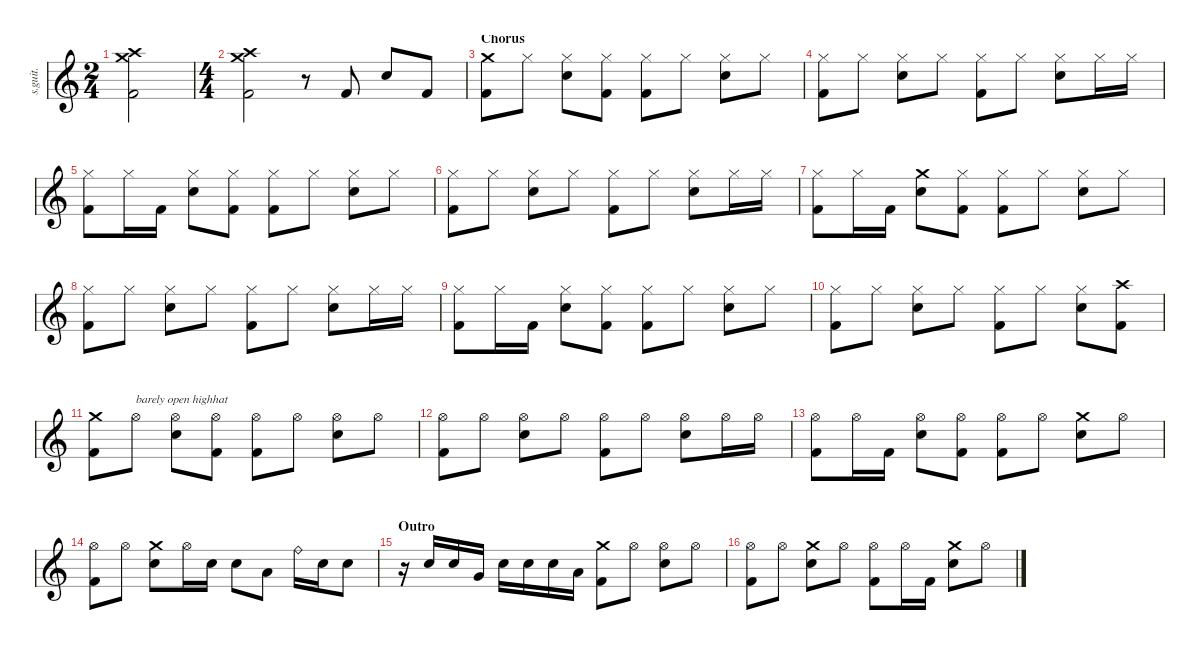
\defaultSystemsLayout 4
\hideDynamics
\bracketExtendMode nobrackets
\track ("Lars Ulrich" "s.guit.") {instrument percussion}
\staff {score}
\articulation defaults
\ts (2 4)
\beaming (8 2 2 2 2)
\tempo (60 hide)
\clef g2
\ks c
("Crash medium (hit)" "Crash high (hit)" "Kick (hit) 2").2{lyrics (0 "") lyrics (1 "") lyrics (2 "") lyrics (3 "") lyrics (4 "") dy fff} |
\ts (4 4)
\beaming (8 2 2 2 2)
\tempo (69 hide)
("Crash medium (hit)" "Crash high (hit)" "Kick (hit) 2").2{lyrics (0 "") lyrics (1 "") lyrics (2 "") lyrics (3 "") lyrics (4 "")} r.8 "Kick (hit) 2".8{lyrics (0 "") lyrics (1 "") lyrics (2 "") lyrics (3 "") lyrics (4 "")} "Snare (hit) 2".8{lyrics (0 "") lyrics (1 "") lyrics (2 "") lyrics (3 "") lyrics (4 "") dy f} "Kick (hit) 2".8{lyrics (0 "") lyrics (1 "") lyrics (2 "") lyrics (3 "") lyrics (4 "") dy fff} |
\section ("" "Chorus")
("Crash medium (hit)" "Kick (hit) 2").8{lyrics (0 "") lyrics (1 "") lyrics (2 "") lyrics (3 "") lyrics (4 "") dy f} "Hi-Hat (closed)".8{lyrics (0 "") lyrics (1 "") lyrics (2 "") lyrics (3 "") lyrics (4 "")} ("Hi-Hat (closed)" "Snare (hit) 2").8{lyrics (0 "") lyrics (1 "") lyrics (2 "") lyrics (3 "") lyrics (4 "")} ("Hi-Hat (closed)" "Kick (hit) 2").8{lyrics (0 "") lyrics (1 "") lyrics (2 "") lyrics (3 "") lyrics (4 "")} ("Hi-Hat (closed)" "Kick (hit) 2").8{lyrics (0 "") lyrics (1 "") lyrics (2 "") lyrics (3 "") lyrics (4 "")} "Hi-Hat (closed)".8{lyrics (0 "") lyrics (1 "") lyrics (2 "") lyrics (3 "") lyrics (4 "")} ("Hi-Hat (closed)" "Snare (hit) 2").8{lyrics (0 "") lyrics (1 "") lyrics (2 "") lyrics (3 "") lyrics (4 "")} "Hi-Hat (closed)".8{lyrics (0 "") lyrics (1 "") lyrics (2 "") lyrics (3 "") lyrics (4 "")} |
("Hi-Hat (closed)" "Kick (hit) 2").8{lyrics (0 "") lyrics (1 "") lyrics (2 "") lyrics (3 "") lyrics (4 "")} "Hi-Hat (closed)".8{lyrics (0 "") lyrics (1 "") lyrics (2 "") lyrics (3 "") lyrics (4 "")} ("Hi-Hat (closed)" "Snare (hit) 2").8{lyrics (0 "") lyrics (1 "") lyrics (2 "") lyrics (3 "") lyrics (4 "")} "Hi-Hat (closed)".8{lyrics (0 "") lyrics (1 "") lyrics (2 "") lyrics (3 "") lyrics (4 "")} ("Hi-Hat (closed)" "Kick (hit) 2").8{lyrics (0 "") lyrics (1 "") lyrics (2 "") lyrics (3 "") lyrics (4 "")} "Hi-Hat (closed)".8{lyrics (0 "") lyrics (1 "") lyrics (2 "") lyrics (3 "") lyrics (4 "")} ("Hi-Hat (closed)" "Snare (hit) 2").8{lyrics (0 "") lyrics (1 "") lyrics (2 "") lyrics (3 "") lyrics (4 "")} "Hi-Hat (closed)".16{lyrics (0 "") lyrics (1 "") lyrics (2 "") lyrics (3 "") lyrics (4 "")} "Hi-Hat (closed)".16{lyrics (0 "") lyrics (1 "") lyrics (2 "") lyrics (3 "") lyrics (4 "")} |
("Hi-Hat (closed)" "Kick (hit) 2").8{lyrics (0 "") lyrics (1 "") lyrics (2 "") lyrics (3 "") lyrics (4 "")} "Hi-Hat (closed)".16{lyrics (0 "") lyrics (1 "") lyrics (2 "") lyrics (3 "") lyrics (4 "")} "Kick (hit) 2".16{lyrics (0 "") lyrics (1 "") lyrics (2 "") lyrics (3 "") lyrics (4 "") dy fff} ("Hi-Hat (closed)" "Snare (hit) 2").8{lyrics (0 "") lyrics (1 "") lyrics (2 "") lyrics (3 "") lyrics (4 "") dy f} ("Hi-Hat (closed)" "Kick (hit) 2").8{lyrics (0 "") lyrics (1 "") lyrics (2 "") lyrics (3 "") lyrics (4 "")} ("Hi-Hat (closed)" "Kick (hit) 2").8{lyrics (0 "") lyrics (1 "") lyrics (2 "") lyrics (3 "") lyrics (4 "")} "Hi-Hat (closed)".8{lyrics (0 "") lyrics (1 "") lyrics (2 "") lyrics (3 "") lyrics (4 "")} ("Hi-Hat (closed)" "Snare (hit) 2").8{lyrics (0 "") lyrics (1 "") lyrics (2 "") lyrics (3 "") lyrics (4 "")} "Hi-Hat (closed)".8{lyrics (0 "") lyrics (1 "") lyrics (2 "") lyrics (3 "") lyrics (4 "")} |
("Hi-Hat (closed)" "Kick (hit) 2").8{lyrics (0 "") lyrics (1 "") lyrics (2 "") lyrics (3 "") lyrics (4 "")} "Hi-Hat (closed)".8{lyrics (0 "") lyrics (1 "") lyrics (2 "") lyrics (3 "") lyrics (4 "")} ("Hi-Hat (closed)" "Snare (hit) 2").8{lyrics (0 "") lyrics (1 "") lyrics (2 "") lyrics (3 "") lyrics (4 "")} "Hi-Hat (closed)".8{lyrics (0 "") lyrics (1 "") lyrics (2 "") lyrics (3 "") lyrics (4 "")} ("Hi-Hat (closed)" "Kick (hit) 2").8{lyrics (0 "") lyrics (1 "") lyrics (2 "") lyrics (3 "") lyrics (4 "")} "Hi-Hat (closed)".8{lyrics (0 "") lyrics (1 "") lyrics (2 "") lyrics (3 "") lyrics (4 "")} ("Hi-Hat (closed)" "Snare (hit) 2").8{lyrics (0 "") lyrics (1 "") lyrics (2 "") lyrics (3 "") lyrics (4 "")} "Hi-Hat (closed)".16{lyrics (0 "") lyrics (1 "") lyrics (2 "") lyrics (3 "") lyrics (4 "")} "Hi-Hat (closed)".16{lyrics (0 "") lyrics (1 "") lyrics (2 "") lyrics (3 "") lyrics (4 "")} |
("Hi-Hat (closed)" "Kick (hit) 2").8{lyrics (0 "") lyrics (1 "") lyrics (2 "") lyrics (3 "") lyrics (4 "")} "Hi-Hat (closed)".16{lyrics (0 "") lyrics (1 "") lyrics (2 "") lyrics (3 "") lyrics (4 "")} "Kick (hit) 2".16{lyrics (0 "") lyrics (1 "") lyrics (2 "") lyrics (3 "") lyrics (4 "") dy fff} ("Crash medium (hit)" "Snare (hit) 2").8{lyrics (0 "") lyrics (1 "") lyrics (2 "") lyrics (3 "") lyrics (4 "") dy f} ("Hi-Hat (closed)" "Kick (hit) 2").8{lyrics (0 "") lyrics (1 "") lyrics (2 "") lyrics (3 "") lyrics (4 "")} ("Hi-Hat (closed)" "Kick (hit) 2").8{lyrics (0 "") lyrics (1 "") lyrics (2 "") lyrics (3 "") lyrics (4 "")} "Hi-Hat (closed)".8{lyrics (0 "") lyrics (1 "") lyrics (2 "") lyrics (3 "") lyrics (4 "")} ("Hi-Hat (closed)" "Snare (hit) 2").8{lyrics (0 "") lyrics (1 "") lyrics (2 "") lyrics (3 "") lyrics (4 "")} "Hi-Hat (closed)".8{lyrics (0 "") lyrics (1 "") lyrics (2 "") lyrics (3 "") lyrics (4 "")} |
("Hi-Hat (closed)" "Kick (hit) 2").8{lyrics (0 "") lyrics (1 "") lyrics (2 "") lyrics (3 "") lyrics (4 "")} "Hi-Hat (closed)".8{lyrics (0 "") lyrics (1 "") lyrics (2 "") lyrics (3 "") lyrics (4 "")} ("Hi-Hat (closed)" "Snare (hit) 2").8{lyrics (0 "") lyrics (1 "") lyrics (2 "") lyrics (3 "") lyrics (4 "")} "Hi-Hat (closed)".8{lyrics (0 "") lyrics (1 "") lyrics (2 "") lyrics (3 "") lyrics (4 "")} ("Hi-Hat (closed)" "Kick (hit) 2").8{lyrics (0 "") lyrics (1 "") lyrics (2 "") lyrics (3 "") lyrics (4 "")} "Hi-Hat (closed)".8{lyrics (0 "") lyrics (1 "") lyrics (2 "") lyrics (3 "") lyrics (4 "")} ("Hi-Hat (closed)" "Snare (hit) 2").8{lyrics (0 "") lyrics (1 "") lyrics (2 "") lyrics (3 "") lyrics (4 "")} "Hi-Hat (closed)".16{lyrics (0 "") lyrics (1 "") lyrics (2 "") lyrics (3 "") lyrics (4 "")} "Hi-Hat (closed)".16{lyrics (0 "") lyrics (1 "") lyrics (2 "") lyrics (3 "") lyrics (4 "")} |
("Hi-Hat (closed)" "Kick (hit) 2").8{lyrics (0 "") lyrics (1 "") lyrics (2 "") lyrics (3 "") lyrics (4 "")} "Hi-Hat (closed)".16{lyrics (0 "") lyrics (1 "") lyrics (2 "") lyrics (3 "") lyrics (4 "")} "Kick (hit) 2".16{lyrics (0 "") lyrics (1 "") lyrics (2 "") lyrics (3 "") lyrics (4 "") dy fff} ("Hi-Hat (closed)" "Snare (hit) 2").8{lyrics (0 "") lyrics (1 "") lyrics (2 "") lyrics (3 "") lyrics (4 "") dy f} ("Hi-Hat (closed)" "Kick (hit) 2").8{lyrics (0 "") lyrics (1 "") lyrics (2 "") lyrics (3 "") lyrics (4 "")} ("Hi-Hat (closed)" "Kick (hit) 2").8{lyrics (0 "") lyrics (1 "") lyrics (2 "") lyrics (3 "") lyrics (4 "")} "Hi-Hat (closed)".8{lyrics (0 "") lyrics (1 "") lyrics (2 "") lyrics (3 "") lyrics (4 "")} ("Hi-Hat (closed)" "Snare (hit) 2").8{lyrics (0 "") lyrics (1 "") lyrics (2 "") lyrics (3 "") lyrics (4 "")} "Hi-Hat (closed)".8{lyrics (0 "") lyrics (1 "") lyrics (2 "") lyrics (3 "") lyrics (4 "")} |
("Hi-Hat (closed)" "Kick (hit) 2").8{lyrics (0 "") lyrics (1 "") lyrics (2 "") lyrics (3 "") lyrics (4 "")} "Hi-Hat (closed)".8{lyrics (0 "") lyrics (1 "") lyrics (2 "") lyrics (3 "") lyrics (4 "")} ("Hi-Hat (closed)" "Snare (hit) 2").8{lyrics (0 "") lyrics (1 "") lyrics (2 "") lyrics (3 "") lyrics (4 "")} "Hi-Hat (closed)".8{lyrics (0 "") lyrics (1 "") lyrics (2 "") lyrics (3 "") lyrics (4 "")} ("Hi-Hat (closed)" "Kick (hit) 2").8{lyrics (0 "") lyrics (1 "") lyrics (2 "") lyrics (3 "") lyrics (4 "")} "Hi-Hat (closed)".8{lyrics (0 "") lyrics (1 "") lyrics (2 "") lyrics (3 "") lyrics (4 "")} ("Hi-Hat (closed)" "Snare (hit) 2").8{lyrics (0 "") lyrics (1 "") lyrics (2 "") lyrics (3 "") lyrics (4 "")} ("Crash high (hit)" "Kick (hit) 2").8{lyrics (0 "") lyrics (1 "") lyrics (2 "") lyrics (3 "") lyrics (4 "")} |
("Crash medium (hit)" "Kick (hit) 2").8{lyrics (0 "") lyrics (1 "") lyrics (2 "") lyrics (3 "") lyrics (4 "") dy fff} "Hi-Hat (open)".8{txt "barely open highhat" lyrics (0 "") lyrics (1 "") lyrics (2 "") lyrics (3 "") lyrics (4 "") dy f} ("Hi-Hat (open)" "Snare (hit) 2").8{lyrics (0 "") lyrics (1 "") lyrics (2 "") lyrics (3 "") lyrics (4 "")} ("Hi-Hat (open)" "Kick (hit) 2").8{lyrics (0 "") lyrics (1 "") lyrics (2 "") lyrics (3 "") lyrics (4 "")} ("Hi-Hat (open)" "Kick (hit) 2").8{lyrics (0 "") lyrics (1 "") lyrics (2 "") lyrics (3 "") lyrics (4 "")} "Hi-Hat (open)".8{lyrics (0 "") lyrics (1 "") lyrics (2 "") lyrics (3 "") lyrics (4 "")} ("Hi-Hat (open)" "Snare (hit) 2").8{lyrics (0 "") lyrics (1 "") lyrics (2 "") lyrics (3 "") lyrics (4 "")} "Hi-Hat (open)".8{lyrics (0 "") lyrics (1 "") lyrics (2 "") lyrics (3 "") lyrics (4 "")} |
("Hi-Hat (open)" "Kick (hit) 2").8{lyrics (0 "") lyrics (1 "") lyrics (2 "") lyrics (3 "") lyrics (4 "")} "Hi-Hat (open)".8{lyrics (0 "") lyrics (1 "") lyrics (2 "") lyrics (3 "") lyrics (4 "")} ("Hi-Hat (open)" "Snare (hit) 2").8{lyrics (0 "") lyrics (1 "") lyrics (2 "") lyrics (3 "") lyrics (4 "")} "Hi-Hat (open)".8{lyrics (0 "") lyrics (1 "") lyrics (2 "") lyrics (3 "") lyrics (4 "")} ("Hi-Hat (open)" "Kick (hit) 2").8{lyrics (0 "") lyrics (1 "") lyrics (2 "") lyrics (3 "") lyrics (4 "")} "Hi-Hat (open)".8{lyrics (0 "") lyrics (1 "") lyrics (2 "") lyrics (3 "") lyrics (4 "")} ("Hi-Hat (open)" "Snare (hit) 2").8{lyrics (0 "") lyrics (1 "") lyrics (2 "") lyrics (3 "") lyrics (4 "")} "Hi-Hat (open)".16{lyrics (0 "") lyrics (1 "") lyrics (2 "") lyrics (3 "") lyrics (4 "")} "Hi-Hat (open)".16{lyrics (0 "") lyrics (1 "") lyrics (2 "") lyrics (3 "") lyrics (4 "")} |
("Hi-Hat (open)" "Kick (hit) 2").8{lyrics (0 "") lyrics (1 "") lyrics (2 "") lyrics (3 "") lyrics (4 "")} "Hi-Hat (open)".16{lyrics (0 "") lyrics (1 "") lyrics (2 "") lyrics (3 "") lyrics (4 "")} "Kick (hit) 2".16{lyrics (0 "") lyrics (1 "") lyrics (2 "") lyrics (3 "") lyrics (4 "") dy fff} ("Hi-Hat (open)" "Snare (hit) 2").8{lyrics (0 "") lyrics (1 "") lyrics (2 "") lyrics (3 "") lyrics (4 "") dy f} ("Hi-Hat (open)" "Kick (hit) 2").8{lyrics (0 "") lyrics (1 "") lyrics (2 "") lyrics (3 "") lyrics (4 "")} ("Hi-Hat (open)" "Kick (hit) 2").8{lyrics (0 "") lyrics (1 "") lyrics (2 "") lyrics (3 "") lyrics (4 "")} "Hi-Hat (open)".8{lyrics (0 "") lyrics (1 "") lyrics (2 "") lyrics (3 "") lyrics (4 "")} ("Crash medium (hit)" "Snare (hit) 2").8{lyrics (0 "") lyrics (1 "") lyrics (2 "") lyrics (3 "") lyrics (4 "") dy fff} "Hi-Hat (open)".8{lyrics (0 "") lyrics (1 "") lyrics (2 "") lyrics (3 "") lyrics (4 "") dy f} |
("Hi-Hat (open)" "Kick (hit) 2").8{lyrics (0 "") lyrics (1 "") lyrics (2 "") lyrics (3 "") lyrics (4 "")} "Hi-Hat (open)".8{lyrics (0 "") lyrics (1 "") lyrics (2 "") lyrics (3 "") lyrics (4 "")} ("Crash medium (hit)" "Snare (hit) 2").8{lyrics (0 "") lyrics (1 "") lyrics (2 "") lyrics (3 "") lyrics (4 "") dy fff} "Hi-Hat (open)".16{lyrics (0 "") lyrics (1 "") lyrics (2 "") lyrics (3 "") lyrics (4 "") dy f} "Snare (hit) 2".16{lyrics (0 "") lyrics (1 "") lyrics (2 "") lyrics (3 "") lyrics (4 "") dy fff} "Snare (hit) 2".8{lyrics (0 "") lyrics (1 "") lyrics (2 "") lyrics (3 "") lyrics (4 "")} "Low Floor Tom (hit)".8{lyrics (0 "") lyrics (1 "") lyrics (2 "") lyrics (3 "") lyrics (4 "")} "Ride (bell)".16{lyrics (0 "") lyrics (1 "") lyrics (2 "") lyrics (3 "") lyrics (4 "")} "Snare (hit) 2".16{lyrics (0 "") lyrics (1 "") lyrics (2 "") lyrics (3 "") lyrics (4 "")} "Snare (hit) 2".8{lyrics (0 "") lyrics (1 "") lyrics (2 "") lyrics (3 "") lyrics (4 "")} |
\section ("" "Outro")
r.16 "Snare (hit) 2".16{lyrics (0 "") lyrics (1 "") lyrics (2 "") lyrics (3 "") lyrics (4 "")} "Snare (hit) 2".16{lyrics (0 "") lyrics (1 "") lyrics (2 "") lyrics (3 "") lyrics (4 "")} "Very Low Tom (hit)".16{lyrics (0 "") lyrics (1 "") lyrics (2 "") lyrics (3 "") lyrics (4 "")} "Snare (hit) 2".16{lyrics (0 "") lyrics (1 "") lyrics (2 "") lyrics (3 "") lyrics (4 "")} "Snare (hit) 2".16{lyrics (0 "") lyrics (1 "") lyrics (2 "") lyrics (3 "") lyrics (4 "")} "Snare (hit) 2".16{lyrics (0 "") lyrics (1 "") lyrics (2 "") lyrics (3 "") lyrics (4 "")} "Low Floor Tom (hit)".16{lyrics (0 "") lyrics (1 "") lyrics (2 "") lyrics (3 "") lyrics (4 "")} ("Crash medium (hit)" "Kick (hit) 2").8{lyrics (0 "") lyrics (1 "") lyrics (2 "") lyrics (3 "") lyrics (4 "")} "Hi-Hat (open)".8{lyrics (0 "") lyrics (1 "") lyrics (2 "") lyrics (3 "") lyrics (4 "") dy f} ("Hi-Hat (open)" "Snare (hit) 2").8{lyrics (0 "") lyrics (1 "") lyrics (2 "") lyrics (3 "") lyrics (4 "")} "Hi-Hat (open)".8{lyrics (0 "") lyrics (1 "") lyrics (2 "") lyrics (3 "") lyrics (4 "")} |
("Hi-Hat (open)" "Kick (hit) 2").8{lyrics (0 "") lyrics (1 "") lyrics (2 "") lyrics (3 "") lyrics (4 "")} "Hi-Hat (open)".8{lyrics (0 "") lyrics (1 "") lyrics (2 "") lyrics (3 "") lyrics (4 "")} ("Crash medium (hit)" "Snare (hit) 2").8{lyrics (0 "") lyrics (1 "") lyrics (2 "") lyrics (3 "") lyrics (4 "") dy fff} "Hi-Hat (open)".8{lyrics (0 "") lyrics (1 "") lyrics (2 "") lyrics (3 "") lyrics (4 "") dy f} ("Hi-Hat (open)" "Kick (hit) 2").8{lyrics (0 "") lyrics (1 "") lyrics (2 "") lyrics (3 "") lyrics (4 "")} "Hi-Hat (open)".16{lyrics (0 "") lyrics (1 "") lyrics (2 "") lyrics (3 "") lyrics (4 "")} "Kick (hit) 2".16{lyrics (0 "") lyrics (1 "") lyrics (2 "") lyrics (3 "") lyrics (4 "") dy fff} ("Crash medium (hit)" "Snare (hit) 2").8{lyrics (0 "") lyrics (1 "") lyrics (2 "") lyrics (3 "") lyrics (4 "")} "Hi-Hat (open)".8{lyrics (0 "") lyrics (1 "") lyrics (2 "") lyrics (3 "") lyrics (4 "") dy f}
